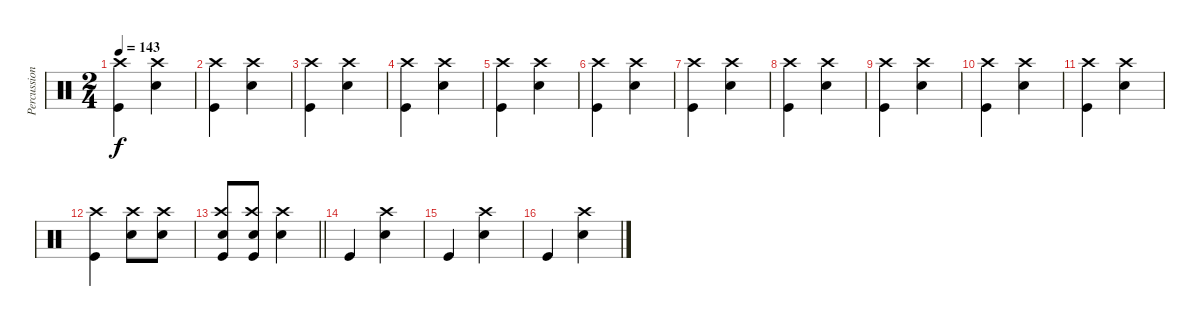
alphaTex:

\track ("Percussion" "Percussion") {instrument percussion}
\staff {score}
\articulation defaults
\ts (2 4)
\tempo 143
\clef neutral
\ks c
("Kick (hit)" "Crash high (hit)").4{dy f} ("Snare (hit) 2" "Crash high (hit)").4 |
("Kick (hit)" "Crash high (hit)").4 ("Snare (hit) 2" "Crash high (hit)").4 |
("Kick (hit)" "Crash high (hit)").4 ("Snare (hit) 2" "Crash high (hit)").4 |
("Kick (hit)" "Crash high (hit)").4 ("Snare (hit) 2" "Crash high (hit)").4 |
("Kick (hit)" "Crash high (hit)").4 ("Snare (hit) 2" "Crash high (hit)").4 |
("Kick (hit)" "Crash high (hit)").4 ("Snare (hit) 2" "Crash high (hit)").4 |
("Kick (hit)" "Crash high (hit)").4 ("Snare (hit) 2" "Crash high (hit)").4 |
("Kick (hit)" "Crash high (hit)").4 ("Snare (hit) 2" "Crash high (hit)").4 |
("Kick (hit)" "Crash high (hit)").4 ("Snare (hit) 2" "Crash high (hit)").4 |
("Kick (hit)" "Crash high (hit)").4 ("Snare (hit) 2" "Crash high (hit)").4 |
("Kick (hit)" "Crash high (hit)").4 ("Snare (hit) 2" "Crash high (hit)").4 |
("Kick (hit)" "Crash high (hit)").4 ("Snare (hit) 2" "Crash high (hit)").8 ("Snare (hit) 2" "Crash high (hit)").8 |
\barLineRight lightlight
("Snare (hit) 2" "Kick (hit)" "Crash high (hit)").8 ("Snare (hit) 2" "Kick (hit)" "Crash high (hit)").8 ("Snare (hit) 2" "Crash high (hit)").4 |
"Kick (hit)".4 ("Snare (hit) 2" "Crash high (hit)").4 |
"Kick (hit)".4 ("Snare (hit) 2" "Crash high (hit)").4 |
"Kick (hit)".4 ("Snare (hit) 2" "Crash high (hit)").4
